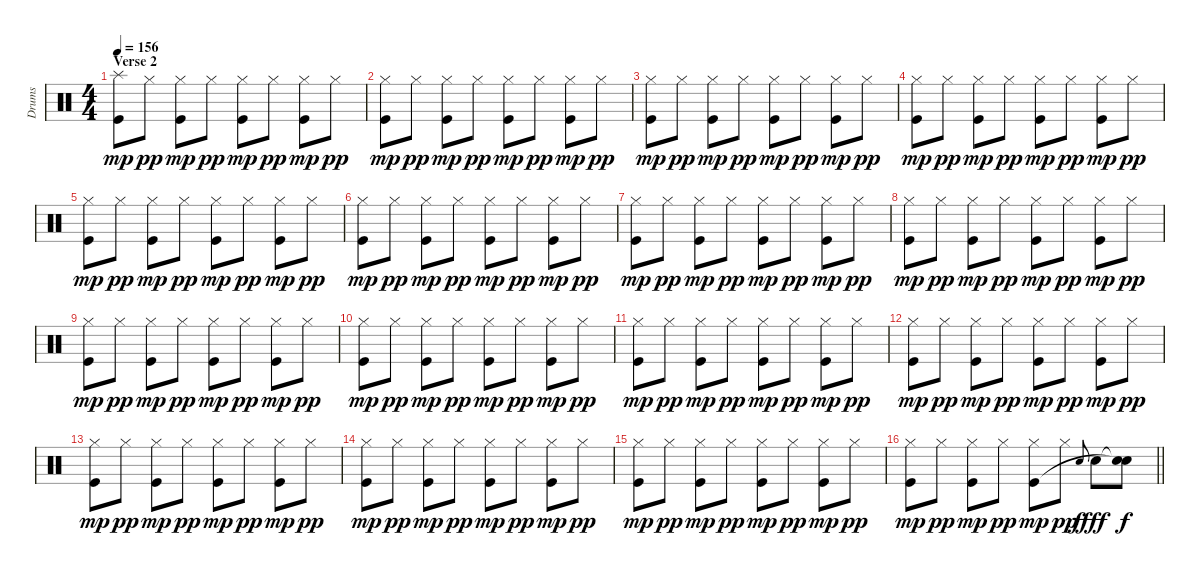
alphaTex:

\track ("Drums" "Drums") {instrument percussion}
\staff {score}
\articulation defaults
\ts (4 4)
\section ("" "Verse 2")
\tempo 156
\clef neutral
\ks c
("Splash (hit)" "Kick (hit)").8{dy mp} "Hi-Hat (closed)".8{dy pp} ("Hi-Hat (closed)" "Kick (hit)").8{dy mp} "Hi-Hat (closed)".8{dy pp} ("Hi-Hat (closed)" "Kick (hit)").8{dy mp} "Hi-Hat (closed)".8{dy pp} ("Hi-Hat (closed)" "Kick (hit)").8{dy mp} "Hi-Hat (closed)".8{dy pp} |
("Hi-Hat (closed)" "Kick (hit)").8{dy mp} "Hi-Hat (closed)".8{dy pp} ("Hi-Hat (closed)" "Kick (hit)").8{dy mp} "Hi-Hat (closed)".8{dy pp} ("Hi-Hat (closed)" "Kick (hit)").8{dy mp} "Hi-Hat (closed)".8{dy pp} ("Hi-Hat (closed)" "Kick (hit)").8{dy mp} "Hi-Hat (closed)".8{dy pp} |
("Hi-Hat (closed)" "Kick (hit)").8{dy mp} "Hi-Hat (closed)".8{dy pp} ("Hi-Hat (closed)" "Kick (hit)").8{dy mp} "Hi-Hat (closed)".8{dy pp} ("Hi-Hat (closed)" "Kick (hit)").8{dy mp} "Hi-Hat (closed)".8{dy pp} ("Hi-Hat (closed)" "Kick (hit)").8{dy mp} "Hi-Hat (closed)".8{dy pp} |
("Hi-Hat (closed)" "Kick (hit)").8{dy mp} "Hi-Hat (closed)".8{dy pp} ("Hi-Hat (closed)" "Kick (hit)").8{dy mp} "Hi-Hat (closed)".8{dy pp} ("Hi-Hat (closed)" "Kick (hit)").8{dy mp} "Hi-Hat (closed)".8{dy pp} ("Hi-Hat (closed)" "Kick (hit)").8{dy mp} "Hi-Hat (closed)".8{dy pp} |
("Hi-Hat (closed)" "Kick (hit)").8{dy mp} "Hi-Hat (closed)".8{dy pp} ("Hi-Hat (closed)" "Kick (hit)").8{dy mp} "Hi-Hat (closed)".8{dy pp} ("Hi-Hat (closed)" "Kick (hit)").8{dy mp} "Hi-Hat (closed)".8{dy pp} ("Hi-Hat (closed)" "Kick (hit)").8{dy mp} "Hi-Hat (closed)".8{dy pp} |
("Hi-Hat (closed)" "Kick (hit)").8{dy mp} "Hi-Hat (closed)".8{dy pp} ("Hi-Hat (closed)" "Kick (hit)").8{dy mp} "Hi-Hat (closed)".8{dy pp} ("Hi-Hat (closed)" "Kick (hit)").8{dy mp} "Hi-Hat (closed)".8{dy pp} ("Hi-Hat (closed)" "Kick (hit)").8{dy mp} "Hi-Hat (closed)".8{dy pp} |
("Hi-Hat (closed)" "Kick (hit)").8{dy mp} "Hi-Hat (closed)".8{dy pp} ("Hi-Hat (closed)" "Kick (hit)").8{dy mp} "Hi-Hat (closed)".8{dy pp} ("Hi-Hat (closed)" "Kick (hit)").8{dy mp} "Hi-Hat (closed)".8{dy pp} ("Hi-Hat (closed)" "Kick (hit)").8{dy mp} "Hi-Hat (closed)".8{dy pp} |
("Hi-Hat (closed)" "Kick (hit)").8{dy mp} "Hi-Hat (closed)".8{dy pp} ("Hi-Hat (closed)" "Kick (hit)").8{dy mp} "Hi-Hat (closed)".8{dy pp} ("Hi-Hat (closed)" "Kick (hit)").8{dy mp} "Hi-Hat (closed)".8{dy pp} ("Hi-Hat (closed)" "Kick (hit)").8{dy mp} "Hi-Hat (closed)".8{dy pp} |
("Hi-Hat (closed)" "Kick (hit)").8{dy mp} "Hi-Hat (closed)".8{dy pp} ("Hi-Hat (closed)" "Kick (hit)").8{dy mp} "Hi-Hat (closed)".8{dy pp} ("Hi-Hat (closed)" "Kick (hit)").8{dy mp} "Hi-Hat (closed)".8{dy pp} ("Hi-Hat (closed)" "Kick (hit)").8{dy mp} "Hi-Hat (closed)".8{dy pp} |
("Hi-Hat (closed)" "Kick (hit)").8{dy mp} "Hi-Hat (closed)".8{dy pp} ("Hi-Hat (closed)" "Kick (hit)").8{dy mp} "Hi-Hat (closed)".8{dy pp} ("Hi-Hat (closed)" "Kick (hit)").8{dy mp} "Hi-Hat (closed)".8{dy pp} ("Hi-Hat (closed)" "Kick (hit)").8{dy mp} "Hi-Hat (closed)".8{dy pp} |
("Hi-Hat (closed)" "Kick (hit)").8{dy mp} "Hi-Hat (closed)".8{dy pp} ("Hi-Hat (closed)" "Kick (hit)").8{dy mp} "Hi-Hat (closed)".8{dy pp} ("Hi-Hat (closed)" "Kick (hit)").8{dy mp} "Hi-Hat (closed)".8{dy pp} ("Hi-Hat (closed)" "Kick (hit)").8{dy mp} "Hi-Hat (closed)".8{dy pp} |
("Hi-Hat (closed)" "Kick (hit)").8{dy mp} "Hi-Hat (closed)".8{dy pp} ("Hi-Hat (closed)" "Kick (hit)").8{dy mp} "Hi-Hat (closed)".8{dy pp} ("Hi-Hat (closed)" "Kick (hit)").8{dy mp} "Hi-Hat (closed)".8{dy pp} ("Hi-Hat (closed)" "Kick (hit)").8{dy mp} "Hi-Hat (closed)".8{dy pp} |
("Hi-Hat (closed)" "Kick (hit)").8{dy mp} "Hi-Hat (closed)".8{dy pp} ("Hi-Hat (closed)" "Kick (hit)").8{dy mp} "Hi-Hat (closed)".8{dy pp} ("Hi-Hat (closed)" "Kick (hit)").8{dy mp} "Hi-Hat (closed)".8{dy pp} ("Hi-Hat (closed)" "Kick (hit)").8{dy mp} "Hi-Hat (closed)".8{dy pp} |
("Hi-Hat (closed)" "Kick (hit)").8{dy mp} "Hi-Hat (closed)".8{dy pp} ("Hi-Hat (closed)" "Kick (hit)").8{dy mp} "Hi-Hat (closed)".8{dy pp} ("Hi-Hat (closed)" "Kick (hit)").8{dy mp} "Hi-Hat (closed)".8{dy pp} ("Hi-Hat (closed)" "Kick (hit)").8{dy mp} "Hi-Hat (closed)".8{dy pp} |
("Hi-Hat (closed)" "Kick (hit)").8{dy mp} "Hi-Hat (closed)".8{dy pp} ("Hi-Hat (closed)" "Kick (hit)").8{dy mp} "Hi-Hat (closed)".8{dy pp} ("Hi-Hat (closed)" "Kick (hit)").8{dy mp} "Hi-Hat (closed)".8{dy pp} ("Hi-Hat (closed)" "Kick (hit)").8{dy mp} "Hi-Hat (closed)".8{dy pp} |
\barLineRight lightlight
("Hi-Hat (closed)" "Kick (hit)").8{dy mp} "Hi-Hat (closed)".8{dy pp} ("Hi-Hat (closed)" "Kick (hit)").8{dy mp} "Hi-Hat (closed)".8{dy pp} ("Hi-Hat (closed)" "Kick (hit)").8{dy mp} "Hi-Hat (closed)".8{dy pp} "Snare (hit) 2".8{gr onbeat dy f} "Snare (hit) 2".8{dy fff} ("Snare (hit)"{t} "Snare (hit)"{t}).8{dy f}
